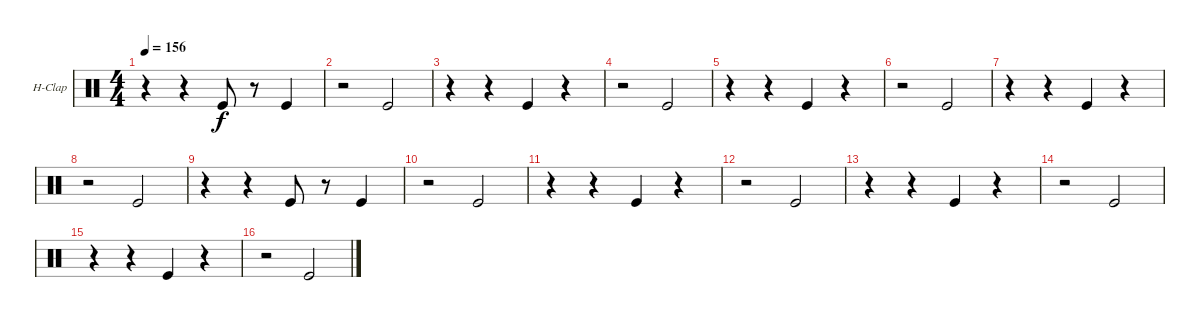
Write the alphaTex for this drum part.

\defaultSystemsLayout 4
\bracketExtendMode groupsimilarinstruments
\firstSystemTrackNameOrientation horizontal
\otherSystemsTrackNameOrientation horizontal
\track ("Hand Clap" "H-Clap") {instrument percussion}
\staff {score}
\articulation defaults
\ts (4 4)
\tempo 156
\clef neutral
\ks c
r.4{dy f} r.4 "Kick (hit)".8 r.8 "Kick (hit)".4 |
r.2 "Kick (hit)".2 |
r.4 r.4 "Kick (hit)".4 r.4 |
r.2 "Kick (hit)".2 |
r.4 r.4 "Kick (hit)".4 r.4 |
r.2 "Kick (hit)".2 |
r.4 r.4 "Kick (hit)".4 r.4 |
r.2 "Kick (hit)".2 |
r.4 r.4 "Kick (hit)".8 r.8 "Kick (hit)".4 |
r.2 "Kick (hit)".2 |
r.4 r.4 "Kick (hit)".4 r.4 |
r.2 "Kick (hit)".2 |
r.4 r.4 "Kick (hit)".4 r.4 |
r.2 "Kick (hit)".2 |
r.4 r.4 "Kick (hit)".4 r.4 |
r.2 "Kick (hit)".2
